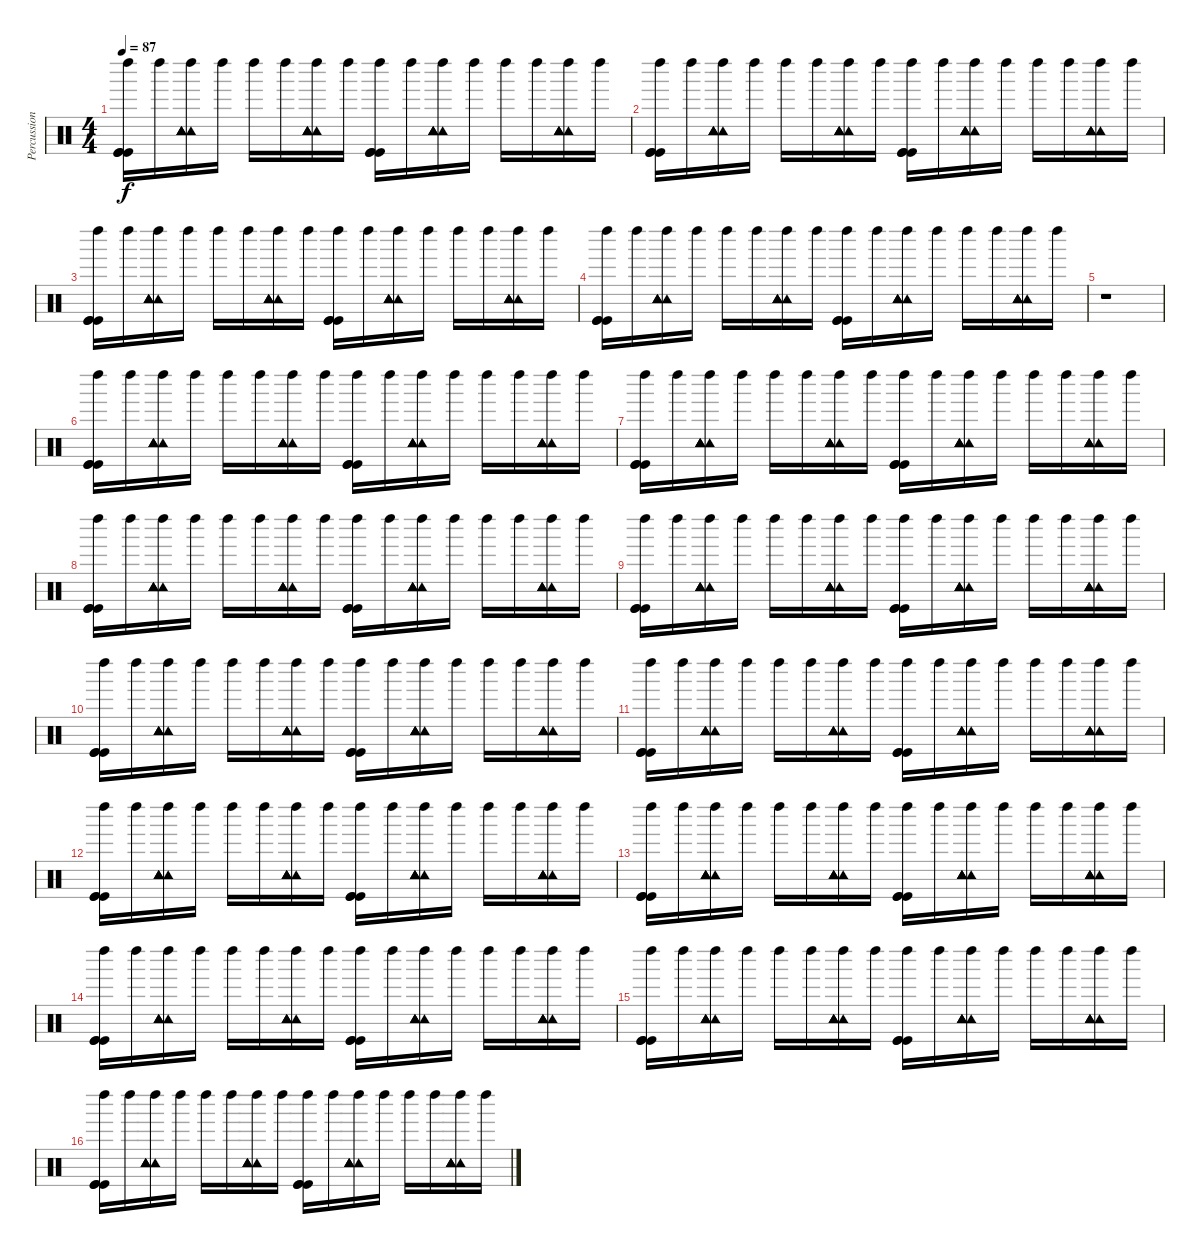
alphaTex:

\track ("Percussions" "Percussion") {instrument percussion}
\staff {score}
\articulation defaults
\ts (4 4)
\tempo 87
\clef neutral
\ks c
("Kick (hit)" "Kick (hit)" "Kick (hit)" "Left Maraca (hit)").16{dy f} "Left Maraca (hit)".16 ("Tambourine (hit)" "Tambourine (hit)" "Tambourine (hit)" "Tambourine (hit)" "Left Maraca (hit)" "Tambourine (hit)").16 "Left Maraca (hit)".16 "Left Maraca (hit)".16 "Left Maraca (hit)".16 ("Tambourine (hit)" "Tambourine (hit)" "Tambourine (hit)" "Tambourine (hit)" "Left Maraca (hit)" "Tambourine (hit)").16 "Left Maraca (hit)".16 ("Kick (hit)" "Kick (hit)" "Kick (hit)" "Left Maraca (hit)").16 "Left Maraca (hit)".16 ("Tambourine (hit)" "Tambourine (hit)" "Tambourine (hit)" "Tambourine (hit)" "Left Maraca (hit)" "Tambourine (hit)").16 "Left Maraca (hit)".16 "Left Maraca (hit)".16 "Left Maraca (hit)".16 ("Tambourine (hit)" "Tambourine (hit)" "Tambourine (hit)" "Tambourine (hit)" "Left Maraca (hit)" "Tambourine (hit)").16 "Left Maraca (hit)".16 |
("Kick (hit)" "Kick (hit)" "Kick (hit)" "Left Maraca (hit)").16 "Left Maraca (hit)".16 ("Tambourine (hit)" "Tambourine (hit)" "Tambourine (hit)" "Tambourine (hit)" "Left Maraca (hit)" "Tambourine (hit)").16 "Left Maraca (hit)".16 "Left Maraca (hit)".16 "Left Maraca (hit)".16 ("Tambourine (hit)" "Tambourine (hit)" "Tambourine (hit)" "Tambourine (hit)" "Left Maraca (hit)" "Tambourine (hit)").16 "Left Maraca (hit)".16 ("Kick (hit)" "Kick (hit)" "Kick (hit)" "Left Maraca (hit)").16 "Left Maraca (hit)".16 ("Tambourine (hit)" "Tambourine (hit)" "Tambourine (hit)" "Tambourine (hit)" "Left Maraca (hit)" "Tambourine (hit)").16 "Left Maraca (hit)".16 "Left Maraca (hit)".16 "Left Maraca (hit)".16 ("Tambourine (hit)" "Tambourine (hit)" "Tambourine (hit)" "Tambourine (hit)" "Left Maraca (hit)" "Tambourine (hit)").16 "Left Maraca (hit)".16 |
("Kick (hit)" "Kick (hit)" "Kick (hit)" "Left Maraca (hit)").16 "Left Maraca (hit)".16 ("Tambourine (hit)" "Tambourine (hit)" "Tambourine (hit)" "Tambourine (hit)" "Left Maraca (hit)" "Tambourine (hit)").16 "Left Maraca (hit)".16 "Left Maraca (hit)".16 "Left Maraca (hit)".16 ("Tambourine (hit)" "Tambourine (hit)" "Tambourine (hit)" "Tambourine (hit)" "Left Maraca (hit)" "Tambourine (hit)").16 "Left Maraca (hit)".16 ("Kick (hit)" "Kick (hit)" "Kick (hit)" "Left Maraca (hit)").16 "Left Maraca (hit)".16 ("Tambourine (hit)" "Tambourine (hit)" "Tambourine (hit)" "Tambourine (hit)" "Left Maraca (hit)" "Tambourine (hit)").16 "Left Maraca (hit)".16 "Left Maraca (hit)".16 "Left Maraca (hit)".16 ("Tambourine (hit)" "Tambourine (hit)" "Tambourine (hit)" "Tambourine (hit)" "Left Maraca (hit)" "Tambourine (hit)").16 "Left Maraca (hit)".16 |
("Kick (hit)" "Kick (hit)" "Kick (hit)" "Left Maraca (hit)").16 "Left Maraca (hit)".16 ("Tambourine (hit)" "Tambourine (hit)" "Tambourine (hit)" "Tambourine (hit)" "Left Maraca (hit)" "Tambourine (hit)").16 "Left Maraca (hit)".16 "Left Maraca (hit)".16 "Left Maraca (hit)".16 ("Tambourine (hit)" "Tambourine (hit)" "Tambourine (hit)" "Tambourine (hit)" "Left Maraca (hit)" "Tambourine (hit)").16 "Left Maraca (hit)".16 ("Kick (hit)" "Kick (hit)" "Kick (hit)" "Left Maraca (hit)").16 "Left Maraca (hit)".16 ("Tambourine (hit)" "Tambourine (hit)" "Tambourine (hit)" "Tambourine (hit)" "Left Maraca (hit)" "Tambourine (hit)").16 "Left Maraca (hit)".16 "Left Maraca (hit)".16 "Left Maraca (hit)".16 ("Tambourine (hit)" "Tambourine (hit)" "Tambourine (hit)" "Tambourine (hit)" "Left Maraca (hit)" "Tambourine (hit)").16 "Left Maraca (hit)".16 |
r.1 |
("Kick (hit)" "Kick (hit)" "Kick (hit)" "Left Maraca (hit)").16 "Left Maraca (hit)".16 ("Tambourine (hit)" "Tambourine (hit)" "Tambourine (hit)" "Tambourine (hit)" "Left Maraca (hit)" "Tambourine (hit)").16 "Left Maraca (hit)".16 "Left Maraca (hit)".16 "Left Maraca (hit)".16 ("Tambourine (hit)" "Tambourine (hit)" "Tambourine (hit)" "Tambourine (hit)" "Left Maraca (hit)" "Tambourine (hit)").16 "Left Maraca (hit)".16 ("Kick (hit)" "Kick (hit)" "Kick (hit)" "Left Maraca (hit)").16 "Left Maraca (hit)".16 ("Tambourine (hit)" "Tambourine (hit)" "Tambourine (hit)" "Tambourine (hit)" "Left Maraca (hit)" "Tambourine (hit)").16 "Left Maraca (hit)".16 "Left Maraca (hit)".16 "Left Maraca (hit)".16 ("Tambourine (hit)" "Tambourine (hit)" "Tambourine (hit)" "Tambourine (hit)" "Left Maraca (hit)" "Tambourine (hit)").16 "Left Maraca (hit)".16 |
("Kick (hit)" "Kick (hit)" "Kick (hit)" "Left Maraca (hit)").16 "Left Maraca (hit)".16 ("Tambourine (hit)" "Tambourine (hit)" "Tambourine (hit)" "Tambourine (hit)" "Left Maraca (hit)" "Tambourine (hit)").16 "Left Maraca (hit)".16 "Left Maraca (hit)".16 "Left Maraca (hit)".16 ("Tambourine (hit)" "Tambourine (hit)" "Tambourine (hit)" "Tambourine (hit)" "Left Maraca (hit)" "Tambourine (hit)").16 "Left Maraca (hit)".16 ("Kick (hit)" "Kick (hit)" "Kick (hit)" "Left Maraca (hit)").16 "Left Maraca (hit)".16 ("Tambourine (hit)" "Tambourine (hit)" "Tambourine (hit)" "Tambourine (hit)" "Left Maraca (hit)" "Tambourine (hit)").16 "Left Maraca (hit)".16 "Left Maraca (hit)".16 "Left Maraca (hit)".16 ("Tambourine (hit)" "Tambourine (hit)" "Tambourine (hit)" "Tambourine (hit)" "Left Maraca (hit)" "Tambourine (hit)").16 "Left Maraca (hit)".16 |
("Kick (hit)" "Kick (hit)" "Kick (hit)" "Left Maraca (hit)").16 "Left Maraca (hit)".16 ("Tambourine (hit)" "Tambourine (hit)" "Tambourine (hit)" "Tambourine (hit)" "Left Maraca (hit)" "Tambourine (hit)").16 "Left Maraca (hit)".16 "Left Maraca (hit)".16 "Left Maraca (hit)".16 ("Tambourine (hit)" "Tambourine (hit)" "Tambourine (hit)" "Tambourine (hit)" "Left Maraca (hit)" "Tambourine (hit)").16 "Left Maraca (hit)".16 ("Kick (hit)" "Kick (hit)" "Kick (hit)" "Left Maraca (hit)").16 "Left Maraca (hit)".16 ("Tambourine (hit)" "Tambourine (hit)" "Tambourine (hit)" "Tambourine (hit)" "Left Maraca (hit)" "Tambourine (hit)").16 "Left Maraca (hit)".16 "Left Maraca (hit)".16 "Left Maraca (hit)".16 ("Tambourine (hit)" "Tambourine (hit)" "Tambourine (hit)" "Tambourine (hit)" "Left Maraca (hit)" "Tambourine (hit)").16 "Left Maraca (hit)".16 |
("Kick (hit)" "Kick (hit)" "Kick (hit)" "Left Maraca (hit)").16 "Left Maraca (hit)".16 ("Tambourine (hit)" "Tambourine (hit)" "Tambourine (hit)" "Tambourine (hit)" "Left Maraca (hit)" "Tambourine (hit)").16 "Left Maraca (hit)".16 "Left Maraca (hit)".16 "Left Maraca (hit)".16 ("Tambourine (hit)" "Tambourine (hit)" "Tambourine (hit)" "Tambourine (hit)" "Left Maraca (hit)" "Tambourine (hit)").16 "Left Maraca (hit)".16 ("Kick (hit)" "Kick (hit)" "Kick (hit)" "Left Maraca (hit)").16 "Left Maraca (hit)".16 ("Tambourine (hit)" "Tambourine (hit)" "Tambourine (hit)" "Tambourine (hit)" "Left Maraca (hit)" "Tambourine (hit)").16 "Left Maraca (hit)".16 "Left Maraca (hit)".16 "Left Maraca (hit)".16 ("Tambourine (hit)" "Tambourine (hit)" "Tambourine (hit)" "Tambourine (hit)" "Left Maraca (hit)" "Tambourine (hit)").16 "Left Maraca (hit)".16 |
("Kick (hit)" "Kick (hit)" "Kick (hit)" "Left Maraca (hit)").16 "Left Maraca (hit)".16 ("Tambourine (hit)" "Tambourine (hit)" "Tambourine (hit)" "Tambourine (hit)" "Left Maraca (hit)" "Tambourine (hit)").16 "Left Maraca (hit)".16 "Left Maraca (hit)".16 "Left Maraca (hit)".16 ("Tambourine (hit)" "Tambourine (hit)" "Tambourine (hit)" "Tambourine (hit)" "Left Maraca (hit)" "Tambourine (hit)").16 "Left Maraca (hit)".16 ("Kick (hit)" "Kick (hit)" "Kick (hit)" "Left Maraca (hit)").16 "Left Maraca (hit)".16 ("Tambourine (hit)" "Tambourine (hit)" "Tambourine (hit)" "Tambourine (hit)" "Left Maraca (hit)" "Tambourine (hit)").16 "Left Maraca (hit)".16 "Left Maraca (hit)".16 "Left Maraca (hit)".16 ("Tambourine (hit)" "Tambourine (hit)" "Tambourine (hit)" "Tambourine (hit)" "Left Maraca (hit)" "Tambourine (hit)").16 "Left Maraca (hit)".16 |
("Kick (hit)" "Kick (hit)" "Kick (hit)" "Left Maraca (hit)").16 "Left Maraca (hit)".16 ("Tambourine (hit)" "Tambourine (hit)" "Tambourine (hit)" "Tambourine (hit)" "Left Maraca (hit)" "Tambourine (hit)").16 "Left Maraca (hit)".16 "Left Maraca (hit)".16 "Left Maraca (hit)".16 ("Tambourine (hit)" "Tambourine (hit)" "Tambourine (hit)" "Tambourine (hit)" "Left Maraca (hit)" "Tambourine (hit)").16 "Left Maraca (hit)".16 ("Kick (hit)" "Kick (hit)" "Kick (hit)" "Left Maraca (hit)").16 "Left Maraca (hit)".16 ("Tambourine (hit)" "Tambourine (hit)" "Tambourine (hit)" "Tambourine (hit)" "Left Maraca (hit)" "Tambourine (hit)").16 "Left Maraca (hit)".16 "Left Maraca (hit)".16 "Left Maraca (hit)".16 ("Tambourine (hit)" "Tambourine (hit)" "Tambourine (hit)" "Tambourine (hit)" "Left Maraca (hit)" "Tambourine (hit)").16 "Left Maraca (hit)".16 |
("Kick (hit)" "Kick (hit)" "Kick (hit)" "Left Maraca (hit)").16 "Left Maraca (hit)".16 ("Tambourine (hit)" "Tambourine (hit)" "Tambourine (hit)" "Tambourine (hit)" "Left Maraca (hit)" "Tambourine (hit)").16 "Left Maraca (hit)".16 "Left Maraca (hit)".16 "Left Maraca (hit)".16 ("Tambourine (hit)" "Tambourine (hit)" "Tambourine (hit)" "Tambourine (hit)" "Left Maraca (hit)" "Tambourine (hit)").16 "Left Maraca (hit)".16 ("Kick (hit)" "Kick (hit)" "Kick (hit)" "Left Maraca (hit)").16 "Left Maraca (hit)".16 ("Tambourine (hit)" "Tambourine (hit)" "Tambourine (hit)" "Tambourine (hit)" "Left Maraca (hit)" "Tambourine (hit)").16 "Left Maraca (hit)".16 "Left Maraca (hit)".16 "Left Maraca (hit)".16 ("Tambourine (hit)" "Tambourine (hit)" "Tambourine (hit)" "Tambourine (hit)" "Left Maraca (hit)" "Tambourine (hit)").16 "Left Maraca (hit)".16 |
("Kick (hit)" "Kick (hit)" "Kick (hit)" "Left Maraca (hit)").16 "Left Maraca (hit)".16 ("Tambourine (hit)" "Tambourine (hit)" "Tambourine (hit)" "Tambourine (hit)" "Left Maraca (hit)" "Tambourine (hit)").16 "Left Maraca (hit)".16 "Left Maraca (hit)".16 "Left Maraca (hit)".16 ("Tambourine (hit)" "Tambourine (hit)" "Tambourine (hit)" "Tambourine (hit)" "Left Maraca (hit)" "Tambourine (hit)").16 "Left Maraca (hit)".16 ("Kick (hit)" "Kick (hit)" "Kick (hit)" "Left Maraca (hit)").16 "Left Maraca (hit)".16 ("Tambourine (hit)" "Tambourine (hit)" "Tambourine (hit)" "Tambourine (hit)" "Left Maraca (hit)" "Tambourine (hit)").16 "Left Maraca (hit)".16 "Left Maraca (hit)".16 "Left Maraca (hit)".16 ("Tambourine (hit)" "Tambourine (hit)" "Tambourine (hit)" "Tambourine (hit)" "Left Maraca (hit)" "Tambourine (hit)").16 "Left Maraca (hit)".16 |
("Kick (hit)" "Kick (hit)" "Kick (hit)" "Left Maraca (hit)").16 "Left Maraca (hit)".16 ("Tambourine (hit)" "Tambourine (hit)" "Tambourine (hit)" "Tambourine (hit)" "Left Maraca (hit)" "Tambourine (hit)").16 "Left Maraca (hit)".16 "Left Maraca (hit)".16 "Left Maraca (hit)".16 ("Tambourine (hit)" "Tambourine (hit)" "Tambourine (hit)" "Tambourine (hit)" "Left Maraca (hit)" "Tambourine (hit)").16 "Left Maraca (hit)".16 ("Kick (hit)" "Kick (hit)" "Kick (hit)" "Left Maraca (hit)").16 "Left Maraca (hit)".16 ("Tambourine (hit)" "Tambourine (hit)" "Tambourine (hit)" "Tambourine (hit)" "Left Maraca (hit)" "Tambourine (hit)").16 "Left Maraca (hit)".16 "Left Maraca (hit)".16 "Left Maraca (hit)".16 ("Tambourine (hit)" "Tambourine (hit)" "Tambourine (hit)" "Tambourine (hit)" "Left Maraca (hit)" "Tambourine (hit)").16 "Left Maraca (hit)".16 |
("Kick (hit)" "Kick (hit)" "Kick (hit)" "Left Maraca (hit)").16 "Left Maraca (hit)".16 ("Tambourine (hit)" "Tambourine (hit)" "Tambourine (hit)" "Tambourine (hit)" "Left Maraca (hit)" "Tambourine (hit)").16 "Left Maraca (hit)".16 "Left Maraca (hit)".16 "Left Maraca (hit)".16 ("Tambourine (hit)" "Tambourine (hit)" "Tambourine (hit)" "Tambourine (hit)" "Left Maraca (hit)" "Tambourine (hit)").16 "Left Maraca (hit)".16 ("Kick (hit)" "Kick (hit)" "Kick (hit)" "Left Maraca (hit)").16 "Left Maraca (hit)".16 ("Tambourine (hit)" "Tambourine (hit)" "Tambourine (hit)" "Tambourine (hit)" "Left Maraca (hit)" "Tambourine (hit)").16 "Left Maraca (hit)".16 "Left Maraca (hit)".16 "Left Maraca (hit)".16 ("Tambourine (hit)" "Tambourine (hit)" "Tambourine (hit)" "Tambourine (hit)" "Left Maraca (hit)" "Tambourine (hit)").16 "Left Maraca (hit)".16 |
("Kick (hit)" "Kick (hit)" "Kick (hit)" "Left Maraca (hit)").16 "Left Maraca (hit)".16 ("Tambourine (hit)" "Tambourine (hit)" "Tambourine (hit)" "Tambourine (hit)" "Left Maraca (hit)" "Tambourine (hit)").16 "Left Maraca (hit)".16 "Left Maraca (hit)".16 "Left Maraca (hit)".16 ("Tambourine (hit)" "Tambourine (hit)" "Tambourine (hit)" "Tambourine (hit)" "Left Maraca (hit)" "Tambourine (hit)").16 "Left Maraca (hit)".16 ("Kick (hit)" "Kick (hit)" "Kick (hit)" "Left Maraca (hit)").16 "Left Maraca (hit)".16 ("Tambourine (hit)" "Tambourine (hit)" "Tambourine (hit)" "Tambourine (hit)" "Left Maraca (hit)" "Tambourine (hit)").16 "Left Maraca (hit)".16 "Left Maraca (hit)".16 "Left Maraca (hit)".16 ("Tambourine (hit)" "Tambourine (hit)" "Tambourine (hit)" "Tambourine (hit)" "Left Maraca (hit)" "Tambourine (hit)").16 "Left Maraca (hit)".16
